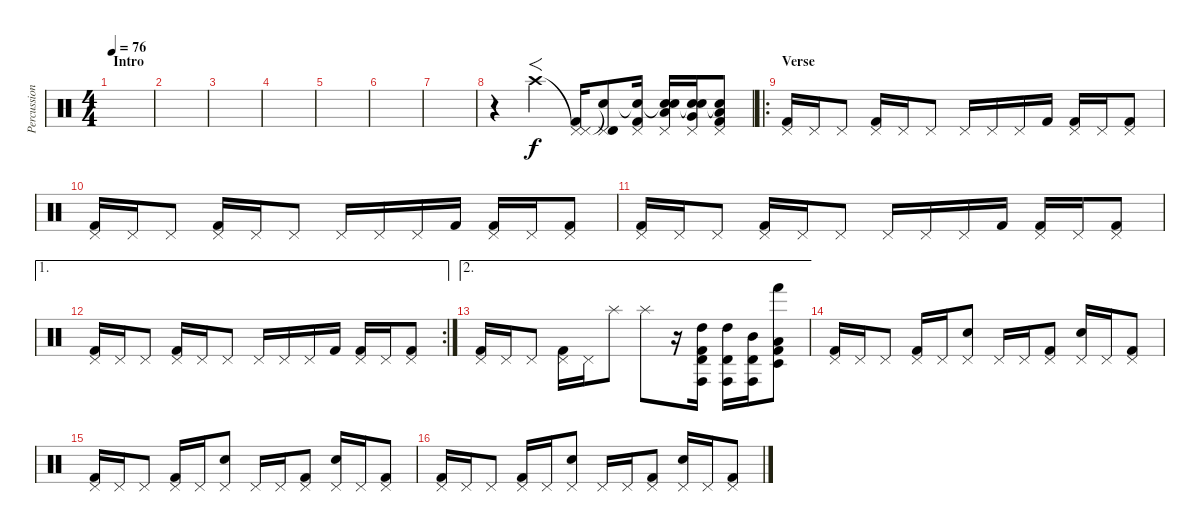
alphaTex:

\track ("Percussion" "Percussion") {instrument percussion}
\staff {score}
\articulation defaults
\ts (4 4)
\section ("" "Intro")
\tempo 76
\clef neutral
\ks c
|
|
|
|
|
|
|
r.4 "Crash high (hit)".4{f} ("Pedal Hi-Hat (hit)"{t} "Pedal Hi-Hat (hit)" "Kick (hit) 2").16 ("Snare (hit)"{t} "Pedal Hi-Hat (hit)" "Timbale high (hit)").8 ("Snare (hit)"{t} "Pedal Hi-Hat (hit)" "Kick (hit) 2").16 ("Snare (hit)"{t} "Pedal Hi-Hat (hit)" "Low Tom (hit)" "Snare (hit) 2").16 ("Snare (hit)"{t} "Pedal Hi-Hat (hit)" "Very Low Tom (hit)" "Snare (hit) 2").16 ("Snare (hit)"{t} "Pedal Hi-Hat (hit)" "Low Floor Tom (hit)" "Kick (hit) 2").8 |
\ro
\section ("" "Verse")
("Pedal Hi-Hat (hit)" "Kick (hit) 2").16 "Pedal Hi-Hat (hit)".16 "Pedal Hi-Hat (hit)".8 ("Pedal Hi-Hat (hit)" "Kick (hit) 2").16 "Pedal Hi-Hat (hit)".16 "Pedal Hi-Hat (hit)".8 "Pedal Hi-Hat (hit)".16 "Pedal Hi-Hat (hit)".16 "Pedal Hi-Hat (hit)".16 "Kick (hit) 2".16 ("Pedal Hi-Hat (hit)" "Kick (hit) 2").16 "Pedal Hi-Hat (hit)".16 ("Pedal Hi-Hat (hit)" "Kick (hit) 2").8 |
("Pedal Hi-Hat (hit)" "Kick (hit) 2").16 "Pedal Hi-Hat (hit)".16 "Pedal Hi-Hat (hit)".8 ("Pedal Hi-Hat (hit)" "Kick (hit) 2").16 "Pedal Hi-Hat (hit)".16 "Pedal Hi-Hat (hit)".8 "Pedal Hi-Hat (hit)".16 "Pedal Hi-Hat (hit)".16 "Pedal Hi-Hat (hit)".16 "Kick (hit) 2".16 ("Pedal Hi-Hat (hit)" "Kick (hit) 2").16 "Pedal Hi-Hat (hit)".16 ("Pedal Hi-Hat (hit)" "Kick (hit) 2").8 |
("Pedal Hi-Hat (hit)" "Kick (hit) 2").16 "Pedal Hi-Hat (hit)".16 "Pedal Hi-Hat (hit)".8 ("Pedal Hi-Hat (hit)" "Kick (hit) 2").16 "Pedal Hi-Hat (hit)".16 "Pedal Hi-Hat (hit)".8 "Pedal Hi-Hat (hit)".16 "Pedal Hi-Hat (hit)".16 "Pedal Hi-Hat (hit)".16 "Kick (hit) 2".16 ("Pedal Hi-Hat (hit)" "Kick (hit) 2").16 "Pedal Hi-Hat (hit)".16 ("Pedal Hi-Hat (hit)" "Kick (hit) 2").8 |
\ae 1
\rc 2
("Pedal Hi-Hat (hit)" "Kick (hit) 2").16 "Pedal Hi-Hat (hit)".16 "Pedal Hi-Hat (hit)".8 ("Pedal Hi-Hat (hit)" "Kick (hit) 2").16 "Pedal Hi-Hat (hit)".16 "Pedal Hi-Hat (hit)".8 "Pedal Hi-Hat (hit)".16 "Pedal Hi-Hat (hit)".16 "Pedal Hi-Hat (hit)".16 "Kick (hit) 2".16 ("Pedal Hi-Hat (hit)" "Kick (hit) 2").16 "Pedal Hi-Hat (hit)".16 ("Pedal Hi-Hat (hit)" "Kick (hit) 2").8 |
\ae 2
("Pedal Hi-Hat (hit)" "Kick (hit) 2").16 "Pedal Hi-Hat (hit)".16 "Pedal Hi-Hat (hit)".8 ("Pedal Hi-Hat (hit)" "Kick (hit) 2").16 "Pedal Hi-Hat (hit)".16 "Splash (hit)".8 "Splash (hit)".8 r.16 ("Timbale high (hit)" "Conga high (hit)" "High Tom (hit)" "Kick (hit) 2").16 ("Timbale high (hit)" "Conga high (hit)" "High Tom (hit)").16 ("Timbale high (hit)" "Conga high (hit)" "Mid Tom (hit)").16 ("Timbale low (hit)" "Hand (hit)" "Low Tom (hit)" "Kick (hit) 2").8 |
("Pedal Hi-Hat (hit)" "Kick (hit) 2").16 "Pedal Hi-Hat (hit)".16 "Pedal Hi-Hat (hit)".8 ("Pedal Hi-Hat (hit)" "Kick (hit) 2").16 "Pedal Hi-Hat (hit)".16 ("Pedal Hi-Hat (hit)" "Electric Snare (hit)").8 "Pedal Hi-Hat (hit)".16 "Pedal Hi-Hat (hit)".16 ("Pedal Hi-Hat (hit)" "Kick (hit) 2").8 ("Pedal Hi-Hat (hit)" "Electric Snare (hit)").16 "Pedal Hi-Hat (hit)".16 ("Pedal Hi-Hat (hit)" "Kick (hit) 2").8 |
("Pedal Hi-Hat (hit)" "Kick (hit) 2").16 "Pedal Hi-Hat (hit)".16 "Pedal Hi-Hat (hit)".8 ("Pedal Hi-Hat (hit)" "Kick (hit) 2").16 "Pedal Hi-Hat (hit)".16 ("Pedal Hi-Hat (hit)" "Electric Snare (hit)").8 "Pedal Hi-Hat (hit)".16 "Pedal Hi-Hat (hit)".16 ("Pedal Hi-Hat (hit)" "Kick (hit) 2").8 ("Pedal Hi-Hat (hit)" "Electric Snare (hit)").16 "Pedal Hi-Hat (hit)".16 ("Pedal Hi-Hat (hit)" "Kick (hit) 2").8 |
("Pedal Hi-Hat (hit)" "Kick (hit) 2").16 "Pedal Hi-Hat (hit)".16 "Pedal Hi-Hat (hit)".8 ("Pedal Hi-Hat (hit)" "Kick (hit) 2").16 "Pedal Hi-Hat (hit)".16 ("Pedal Hi-Hat (hit)" "Electric Snare (hit)").8 "Pedal Hi-Hat (hit)".16 "Pedal Hi-Hat (hit)".16 ("Pedal Hi-Hat (hit)" "Kick (hit) 2").8 ("Pedal Hi-Hat (hit)" "Electric Snare (hit)").16 "Pedal Hi-Hat (hit)".16 ("Pedal Hi-Hat (hit)" "Kick (hit) 2").8
